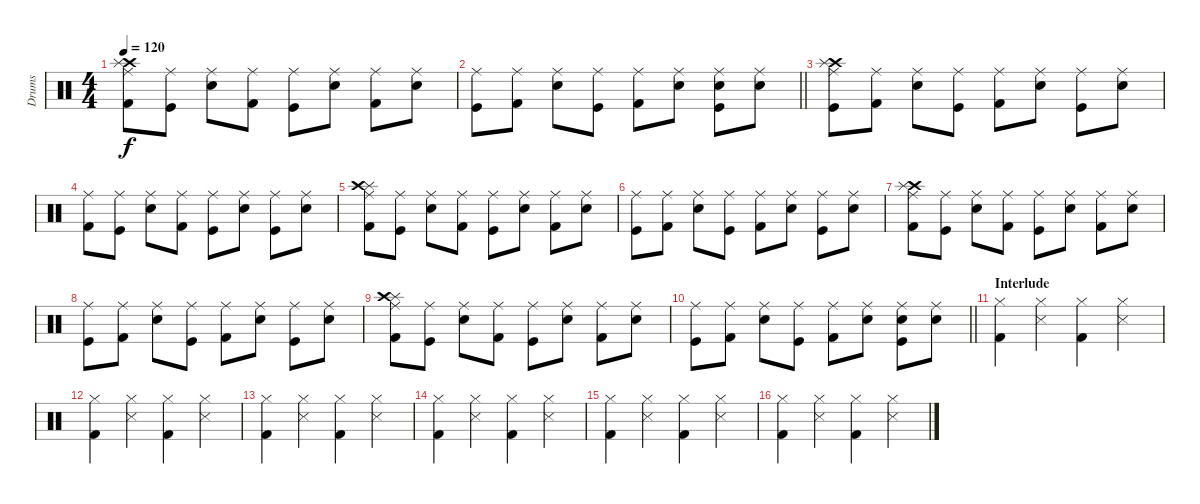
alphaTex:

\track ("Drums" "Drums") {instrument percussion}
\staff {score}
\articulation defaults
\ts (4 4)
\tempo 120
\clef neutral
\ks c
("Kick (hit) 2" "Crash high (hit)" "Splash (hit)" "Ride (middle)").8{dy f} ("Kick (hit)" "Ride (middle)").8 ("Snare (hit) 2" "Ride (middle)").8 ("Kick (hit) 2" "Ride (middle)").8 ("Kick (hit)" "Ride (middle)").8 ("Snare (hit) 2" "Ride (middle)").8 ("Kick (hit) 2" "Ride (middle)").8 ("Snare (hit) 2" "Ride (middle)").8 |
\barLineRight lightlight
("Kick (hit)" "Ride (middle)").8 ("Kick (hit) 2" "Ride (middle)").8 ("Snare (hit) 2" "Ride (middle)").8 ("Kick (hit)" "Ride (middle)").8 ("Kick (hit) 2" "Ride (middle)").8 ("Snare (hit) 2" "Ride (middle)").8 ("Kick (hit)" "Snare (hit) 2" "Ride (middle)").8 ("Snare (hit) 2" "Ride (middle)").8 |
("Kick (hit)" "Crash high (hit)" "Splash (hit)" "Ride (middle)").8 ("Kick (hit) 2" "Ride (middle)").8 ("Snare (hit) 2" "Ride (middle)").8 ("Kick (hit)" "Ride (middle)").8 ("Kick (hit) 2" "Ride (middle)").8 ("Snare (hit) 2" "Ride (middle)").8 ("Kick (hit)" "Ride (middle)").8 ("Snare (hit) 2" "Ride (middle)").8 |
("Kick (hit) 2" "Ride (middle)").8 ("Kick (hit)" "Ride (middle)").8 ("Snare (hit) 2" "Ride (middle)").8 ("Kick (hit) 2" "Ride (middle)").8 ("Kick (hit)" "Ride (middle)").8 ("Snare (hit) 2" "Ride (middle)").8 ("Kick (hit)" "Ride (middle)").8 ("Snare (hit) 2" "Ride (middle)").8 |
("Kick (hit) 2" "Splash (hit)" "Crash high (hit)" "Ride (middle)").8 ("Kick (hit)" "Ride (middle)").8 ("Snare (hit) 2" "Ride (middle)").8 ("Kick (hit) 2" "Ride (middle)").8 ("Kick (hit)" "Ride (middle)").8 ("Snare (hit) 2" "Ride (middle)").8 ("Kick (hit) 2" "Ride (middle)").8 ("Snare (hit) 2" "Ride (middle)").8 |
("Kick (hit)" "Ride (middle)").8 ("Kick (hit) 2" "Ride (middle)").8 ("Snare (hit) 2" "Ride (middle)").8 ("Kick (hit)" "Ride (middle)").8 ("Kick (hit) 2" "Ride (middle)").8 ("Snare (hit) 2" "Ride (middle)").8 ("Kick (hit)" "Ride (middle)").8 ("Snare (hit) 2" "Ride (middle)").8 |
("Kick (hit) 2" "Crash high (hit)" "Splash (hit)" "Ride (middle)").8 ("Kick (hit)" "Ride (middle)").8 ("Snare (hit) 2" "Ride (middle)").8 ("Kick (hit) 2" "Ride (middle)").8 ("Kick (hit)" "Ride (middle)").8 ("Snare (hit) 2" "Ride (middle)").8 ("Kick (hit) 2" "Ride (middle)").8 ("Snare (hit) 2" "Ride (middle)").8 |
("Kick (hit)" "Ride (middle)").8 ("Kick (hit) 2" "Ride (middle)").8 ("Snare (hit) 2" "Ride (middle)").8 ("Kick (hit)" "Ride (middle)").8 ("Kick (hit) 2" "Ride (middle)").8 ("Snare (hit) 2" "Ride (middle)").8 ("Kick (hit)" "Ride (middle)").8 ("Snare (hit) 2" "Ride (middle)").8 |
("Kick (hit) 2" "Splash (hit)" "Crash high (hit)" "Ride (middle)").8 ("Kick (hit)" "Ride (middle)").8 ("Snare (hit) 2" "Ride (middle)").8 ("Kick (hit) 2" "Ride (middle)").8 ("Kick (hit)" "Ride (middle)").8 ("Snare (hit) 2" "Ride (middle)").8 ("Kick (hit) 2" "Ride (middle)").8 ("Snare (hit) 2" "Ride (middle)").8 |
\barLineRight lightlight
("Kick (hit)" "Ride (middle)").8 ("Kick (hit) 2" "Ride (middle)").8 ("Snare (hit) 2" "Ride (middle)").8 ("Kick (hit)" "Ride (middle)").8 ("Kick (hit) 2" "Ride (middle)").8 ("Snare (hit) 2" "Ride (middle)").8 ("Kick (hit)" "Snare (hit) 2" "Ride (middle)").8 ("Snare (hit) 2" "Ride (middle)").8 |
\section ("" "Interlude")
("Kick (hit) 2" "Hi-Hat (closed)").4 ("Metronome (hit)" "Hi-Hat (closed)").4 ("Kick (hit) 2" "Hi-Hat (closed)").4 ("Metronome (hit)" "Hi-Hat (closed)").4 |
("Kick (hit) 2" "Hi-Hat (closed)").4 ("Metronome (hit)" "Hi-Hat (closed)").4 ("Kick (hit) 2" "Hi-Hat (closed)").4 ("Metronome (hit)" "Hi-Hat (closed)").4 |
("Kick (hit) 2" "Hi-Hat (closed)").4 ("Metronome (hit)" "Hi-Hat (closed)").4 ("Kick (hit) 2" "Hi-Hat (closed)").4 ("Metronome (hit)" "Hi-Hat (closed)").4 |
("Kick (hit) 2" "Hi-Hat (closed)").4 ("Metronome (hit)" "Hi-Hat (closed)").4 ("Kick (hit) 2" "Hi-Hat (closed)").4 ("Metronome (hit)" "Hi-Hat (closed)").4 |
("Kick (hit) 2" "Hi-Hat (closed)").4 ("Metronome (hit)" "Hi-Hat (closed)").4 ("Kick (hit) 2" "Hi-Hat (closed)").4 ("Metronome (hit)" "Hi-Hat (closed)").4 |
("Kick (hit) 2" "Hi-Hat (closed)").4 ("Metronome (hit)" "Hi-Hat (closed)").4 ("Kick (hit) 2" "Hi-Hat (closed)").4 ("Metronome (hit)" "Hi-Hat (closed)").4
